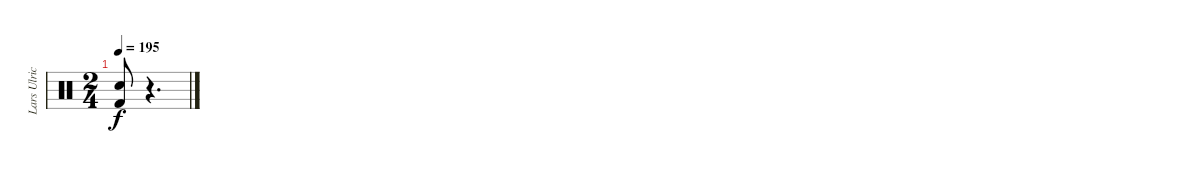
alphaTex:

\track ("Lars Ulrich" "Lars Ulric") {instrument percussion}
\staff {score}
\articulation defaults
\ts (2 4)
\tempo 195
\clef neutral
\ks c
("Kick (hit) 2" "Snare (hit) 2").8{dy f} r.4{d}
